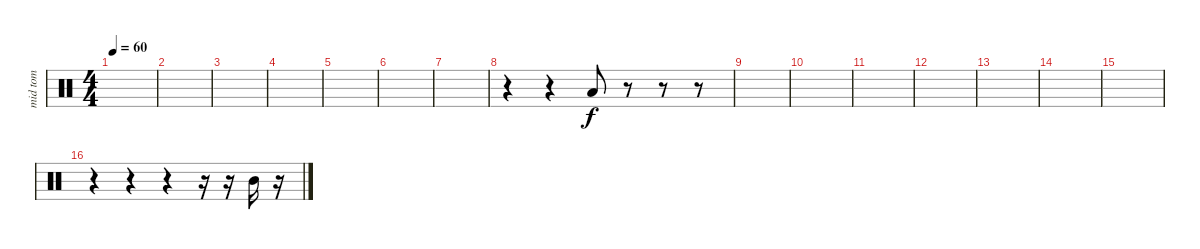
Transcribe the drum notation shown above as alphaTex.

\track ("mid tom" "mid tom") {instrument percussion}
\staff {score}
\articulation defaults
\ts (4 4)
\tempo 60
\clef neutral
\ks c
|
|
|
|
|
|
|
r.4 r.4 "Low Tom (hit)".8 r.8 r.8 r.8 |
|
|
|
|
|
|
|
r.4 r.4 r.4 r.16 r.16 "Mid Tom (hit)".16 r.16
